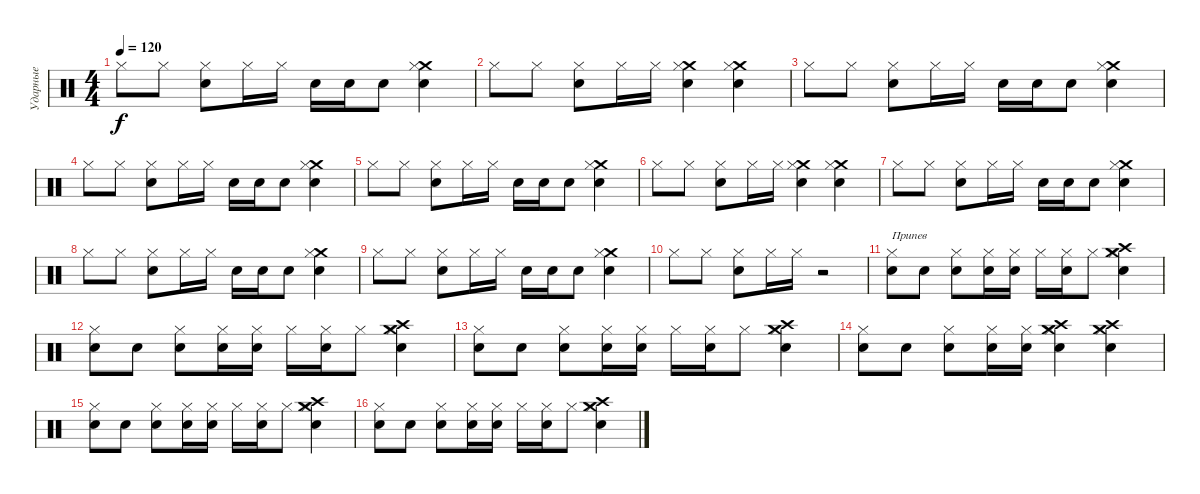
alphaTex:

\track ("Ударные" "Ударные") {instrument percussion}
\staff {score}
\articulation defaults
\ts (4 4)
\tempo 120
\clef neutral
\ks c "Hi-Hat (closed)".8{dy f} "Hi-Hat (closed)".8
("Hi-Hat (closed)" "Electric Snare (hit)").8 "Hi-Hat (closed)".16 "Hi-Hat (closed)".16 "Electric Snare (hit)".16 "Electric Snare (hit)".16 "Electric Snare (hit)".8 ("Crash medium (hit)" "Electric Snare (hit)" "Hi-Hat (closed)").4 |
"Hi-Hat (closed)".8 "Hi-Hat (closed)".8 ("Hi-Hat (closed)" "Electric Snare (hit)").8 "Hi-Hat (closed)".16 "Hi-Hat (closed)".16 ("Crash medium (hit)" "Electric Snare (hit)" "Hi-Hat (closed)").4 ("Crash medium (hit)" "Electric Snare (hit)" "Hi-Hat (closed)").4 |
"Hi-Hat (closed)".8 "Hi-Hat (closed)".8 ("Hi-Hat (closed)" "Electric Snare (hit)").8 "Hi-Hat (closed)".16 "Hi-Hat (closed)".16 "Electric Snare (hit)".16 "Electric Snare (hit)".16 "Electric Snare (hit)".8 ("Crash medium (hit)" "Electric Snare (hit)" "Hi-Hat (closed)").4 |
"Hi-Hat (closed)".8 "Hi-Hat (closed)".8 ("Hi-Hat (closed)" "Electric Snare (hit)").8 "Hi-Hat (closed)".16 "Hi-Hat (closed)".16 "Electric Snare (hit)".16 "Electric Snare (hit)".16 "Electric Snare (hit)".8 ("Crash medium (hit)" "Electric Snare (hit)" "Hi-Hat (closed)").4 |
"Hi-Hat (closed)".8 "Hi-Hat (closed)".8 ("Hi-Hat (closed)" "Electric Snare (hit)").8 "Hi-Hat (closed)".16 "Hi-Hat (closed)".16 "Electric Snare (hit)".16 "Electric Snare (hit)".16 "Electric Snare (hit)".8 ("Crash medium (hit)" "Electric Snare (hit)" "Hi-Hat (closed)").4 |
"Hi-Hat (closed)".8 "Hi-Hat (closed)".8 ("Hi-Hat (closed)" "Electric Snare (hit)").8 "Hi-Hat (closed)".16 "Hi-Hat (closed)".16 ("Crash medium (hit)" "Electric Snare (hit)" "Hi-Hat (closed)").4 ("Crash medium (hit)" "Electric Snare (hit)" "Hi-Hat (closed)").4 |
"Hi-Hat (closed)".8 "Hi-Hat (closed)".8 ("Hi-Hat (closed)" "Electric Snare (hit)").8 "Hi-Hat (closed)".16 "Hi-Hat (closed)".16 "Electric Snare (hit)".16 "Electric Snare (hit)".16 "Electric Snare (hit)".8 ("Crash medium (hit)" "Electric Snare (hit)" "Hi-Hat (closed)").4 |
"Hi-Hat (closed)".8 "Hi-Hat (closed)".8 ("Hi-Hat (closed)" "Electric Snare (hit)").8 "Hi-Hat (closed)".16 "Hi-Hat (closed)".16 "Electric Snare (hit)".16 "Electric Snare (hit)".16 "Electric Snare (hit)".8 ("Crash medium (hit)" "Electric Snare (hit)" "Hi-Hat (closed)").4 |
"Hi-Hat (closed)".8 "Hi-Hat (closed)".8 ("Hi-Hat (closed)" "Electric Snare (hit)").8 "Hi-Hat (closed)".16 "Hi-Hat (closed)".16 "Electric Snare (hit)".16 "Electric Snare (hit)".16 "Electric Snare (hit)".8 ("Crash medium (hit)" "Electric Snare (hit)" "Hi-Hat (closed)").4 |
"Hi-Hat (closed)".8 "Hi-Hat (closed)".8 ("Hi-Hat (closed)" "Electric Snare (hit)").8 "Hi-Hat (closed)".16 "Hi-Hat (closed)".16 r.2 |
("Hi-Hat (closed)" "Electric Snare (hit)").8{txt "Припев"} "Electric Snare (hit)".8 ("Hi-Hat (closed)" "Electric Snare (hit)").8 ("Hi-Hat (closed)" "Electric Snare (hit)").16 ("Hi-Hat (closed)" "Electric Snare (hit)").16 "Hi-Hat (closed)".16 ("Hi-Hat (closed)" "Electric Snare (hit)").16 "Hi-Hat (closed)".8 ("Crash high (hit)" "Crash medium (hit)" "Electric Snare (hit)" "Hi-Hat (closed)").4 |
("Hi-Hat (closed)" "Electric Snare (hit)").8 "Electric Snare (hit)".8 ("Hi-Hat (closed)" "Electric Snare (hit)").8 ("Hi-Hat (closed)" "Electric Snare (hit)").16 ("Hi-Hat (closed)" "Electric Snare (hit)").16 "Hi-Hat (closed)".16 ("Hi-Hat (closed)" "Electric Snare (hit)").16 "Hi-Hat (closed)".8 ("Crash high (hit)" "Crash medium (hit)" "Electric Snare (hit)" "Hi-Hat (closed)").4 |
("Hi-Hat (closed)" "Electric Snare (hit)").8 "Electric Snare (hit)".8 ("Hi-Hat (closed)" "Electric Snare (hit)").8 ("Hi-Hat (closed)" "Electric Snare (hit)").16 ("Hi-Hat (closed)" "Electric Snare (hit)").16 "Hi-Hat (closed)".16 ("Hi-Hat (closed)" "Electric Snare (hit)").16 "Hi-Hat (closed)".8 ("Crash high (hit)" "Crash medium (hit)" "Electric Snare (hit)" "Hi-Hat (closed)").4 |
("Hi-Hat (closed)" "Electric Snare (hit)").8 "Electric Snare (hit)".8 ("Hi-Hat (closed)" "Electric Snare (hit)").8 ("Hi-Hat (closed)" "Electric Snare (hit)").16 ("Hi-Hat (closed)" "Electric Snare (hit)").16 ("Crash high (hit)" "Crash medium (hit)" "Electric Snare (hit)" "Hi-Hat (closed)").4 ("Crash high (hit)" "Crash medium (hit)" "Electric Snare (hit)" "Hi-Hat (closed)").4 |
("Hi-Hat (closed)" "Electric Snare (hit)").8 "Electric Snare (hit)".8 ("Hi-Hat (closed)" "Electric Snare (hit)").8 ("Hi-Hat (closed)" "Electric Snare (hit)").16 ("Hi-Hat (closed)" "Electric Snare (hit)").16 "Hi-Hat (closed)".16 ("Hi-Hat (closed)" "Electric Snare (hit)").16 "Hi-Hat (closed)".8 ("Crash high (hit)" "Crash medium (hit)" "Electric Snare (hit)" "Hi-Hat (closed)").4 |
("Hi-Hat (closed)" "Electric Snare (hit)").8 "Electric Snare (hit)".8 ("Hi-Hat (closed)" "Electric Snare (hit)").8 ("Hi-Hat (closed)" "Electric Snare (hit)").16 ("Hi-Hat (closed)" "Electric Snare (hit)").16 "Hi-Hat (closed)".16 ("Hi-Hat (closed)" "Electric Snare (hit)").16 "Hi-Hat (closed)".8 ("Crash high (hit)" "Crash medium (hit)" "Electric Snare (hit)" "Hi-Hat (closed)").4
